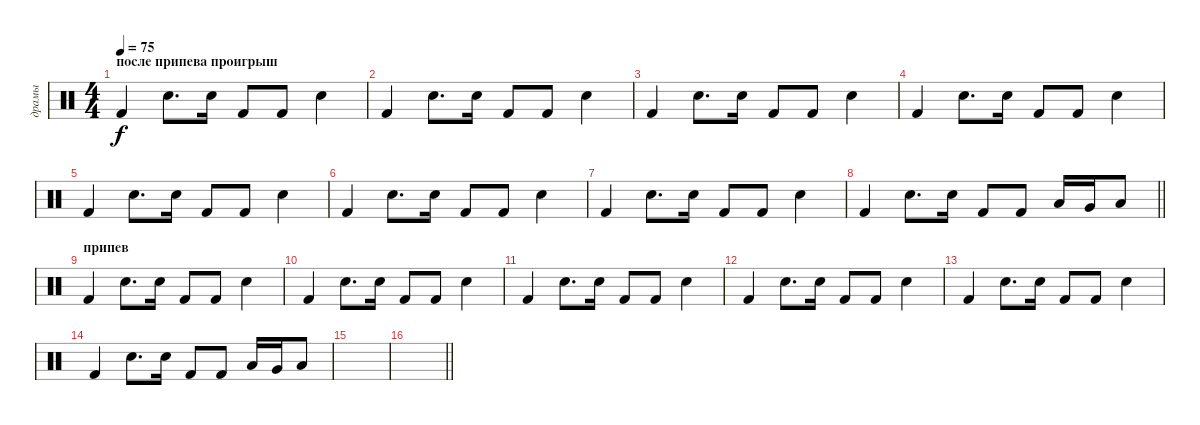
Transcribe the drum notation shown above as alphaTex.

\track ("драмы" "драмы") {instrument percussion}
\staff {score}
\articulation defaults
\ts (4 4)
\section ("" "после припева проигрыш")
\tempo 75
\clef neutral
\ks c "Kick (hit) 2".4{dy f} "Electric Snare (hit)".8{d} "Electric Snare (hit)".16 "Kick (hit) 2".8 "Kick (hit) 2".8 "Electric Snare (hit)".4
|
"Kick (hit) 2".4 "Electric Snare (hit)".8{d} "Electric Snare (hit)".16 "Kick (hit) 2".8 "Kick (hit) 2".8 "Electric Snare (hit)".4 |
"Kick (hit) 2".4 "Electric Snare (hit)".8{d} "Electric Snare (hit)".16 "Kick (hit) 2".8 "Kick (hit) 2".8 "Electric Snare (hit)".4 |
"Kick (hit) 2".4 "Electric Snare (hit)".8{d} "Electric Snare (hit)".16 "Kick (hit) 2".8 "Kick (hit) 2".8 "Electric Snare (hit)".4 |
"Kick (hit) 2".4 "Electric Snare (hit)".8{d} "Electric Snare (hit)".16 "Kick (hit) 2".8 "Kick (hit) 2".8 "Electric Snare (hit)".4 |
"Kick (hit) 2".4 "Electric Snare (hit)".8{d} "Electric Snare (hit)".16 "Kick (hit) 2".8 "Kick (hit) 2".8 "Electric Snare (hit)".4 |
"Kick (hit) 2".4 "Electric Snare (hit)".8{d} "Electric Snare (hit)".16 "Kick (hit) 2".8 "Kick (hit) 2".8 "Electric Snare (hit)".4 |
\barLineRight lightlight "Kick (hit) 2".4 "Electric Snare (hit)".8{d} "Electric Snare (hit)".16 "Kick (hit) 2".8 "Kick (hit) 2".8 "Low Tom (hit)".16 "Very Low Tom (hit)".16 "Low Floor Tom (hit)".8
|
\section ("" "припев")
"Kick (hit) 2".4 "Electric Snare (hit)".8{d} "Electric Snare (hit)".16 "Kick (hit) 2".8 "Kick (hit) 2".8 "Electric Snare (hit)".4 |
"Kick (hit) 2".4 "Electric Snare (hit)".8{d} "Electric Snare (hit)".16 "Kick (hit) 2".8 "Kick (hit) 2".8 "Electric Snare (hit)".4 |
"Kick (hit) 2".4 "Electric Snare (hit)".8{d} "Electric Snare (hit)".16 "Kick (hit) 2".8 "Kick (hit) 2".8 "Electric Snare (hit)".4 |
"Kick (hit) 2".4 "Electric Snare (hit)".8{d} "Electric Snare (hit)".16 "Kick (hit) 2".8 "Kick (hit) 2".8 "Electric Snare (hit)".4 |
"Kick (hit) 2".4 "Electric Snare (hit)".8{d} "Electric Snare (hit)".16 "Kick (hit) 2".8 "Kick (hit) 2".8 "Electric Snare (hit)".4 |
"Kick (hit) 2".4 "Electric Snare (hit)".8{d} "Electric Snare (hit)".16 "Kick (hit) 2".8 "Kick (hit) 2".8 "Low Tom (hit)".16 "Very Low Tom (hit)".16 "Low Floor Tom (hit)".8 |
|
\barLineRight lightlight
